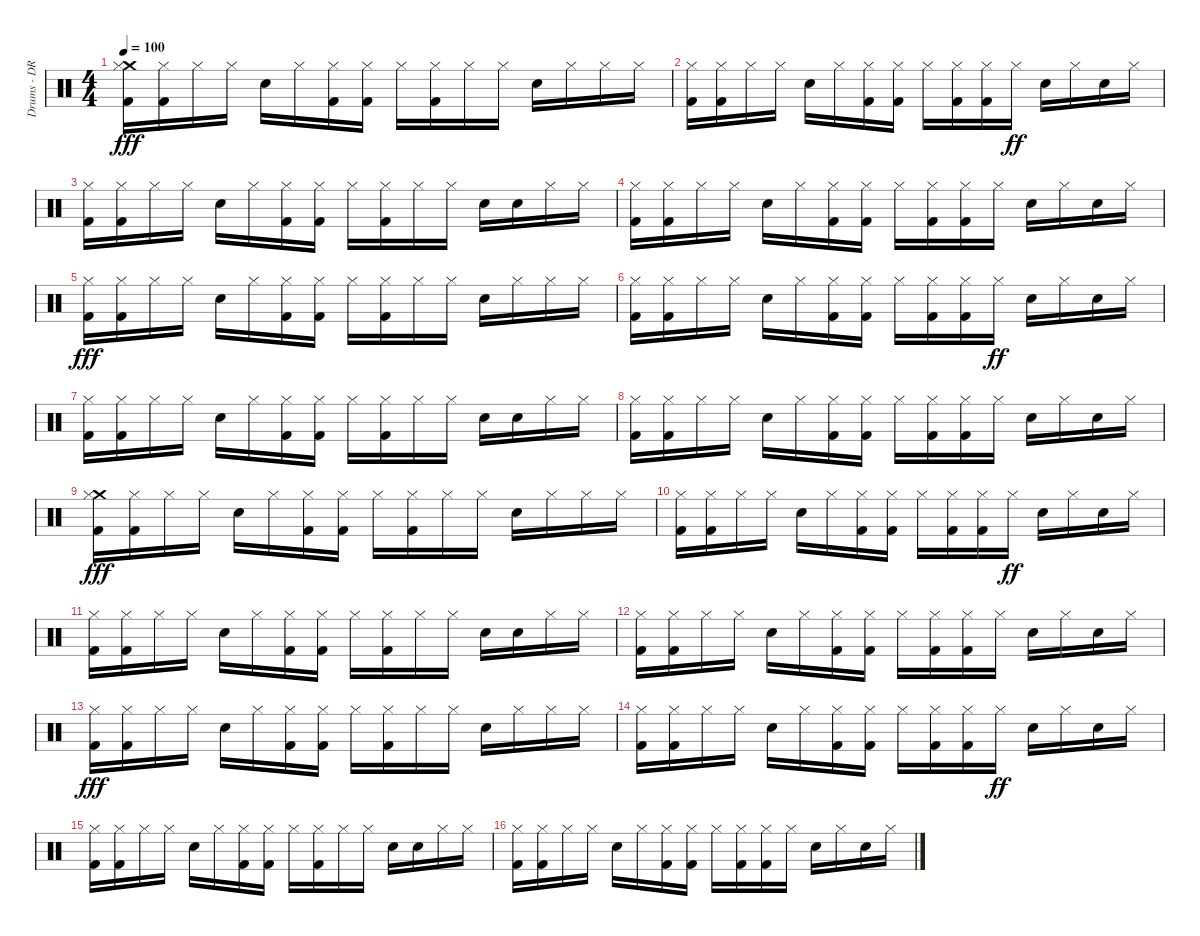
\track ("Drums - DR-660 Standard" "Drums - DR") {instrument percussion}
\staff {score}
\articulation defaults
\ts (4 4)
\tempo 100
\clef neutral
\ks c
("Crash medium (hit)" "Kick (hit) 2" "Hi-Hat (closed)").16{dy fff} ("Kick (hit) 2" "Hi-Hat (closed)").16 "Hi-Hat (closed)".16 "Hi-Hat (closed)".16 "Snare (hit) 2".16 "Hi-Hat (closed)".16 ("Kick (hit) 2" "Hi-Hat (closed)").16 ("Kick (hit) 2" "Hi-Hat (closed)").16 "Hi-Hat (closed)".16 ("Kick (hit) 2" "Hi-Hat (closed)").16 "Hi-Hat (closed)".16 "Hi-Hat (closed)".16 "Snare (hit) 2".16 "Hi-Hat (closed)".16 "Hi-Hat (closed)".16 "Hi-Hat (closed)".16 |
("Kick (hit) 2" "Hi-Hat (closed)").16 ("Kick (hit) 2" "Hi-Hat (closed)").16 "Hi-Hat (closed)".16 "Hi-Hat (closed)".16 "Snare (hit) 2".16 "Hi-Hat (closed)".16 ("Kick (hit) 2" "Hi-Hat (closed)").16 ("Kick (hit) 2" "Hi-Hat (closed)").16 "Hi-Hat (closed)".16 ("Kick (hit) 2" "Hi-Hat (closed)").16 ("Kick (hit) 2" "Hi-Hat (closed)").16 "Hi-Hat (closed)".16{dy ff} "Snare (hit) 2".16 "Hi-Hat (closed)".16 "Snare (hit) 2".16 "Hi-Hat (closed)".16 |
("Kick (hit) 2" "Hi-Hat (closed)").16 ("Kick (hit) 2" "Hi-Hat (closed)").16 "Hi-Hat (closed)".16 "Hi-Hat (closed)".16 "Snare (hit) 2".16 "Hi-Hat (closed)".16 ("Kick (hit) 2" "Hi-Hat (closed)").16 ("Kick (hit) 2" "Hi-Hat (closed)").16 "Hi-Hat (closed)".16 ("Kick (hit) 2" "Hi-Hat (closed)").16 "Hi-Hat (closed)".16 "Hi-Hat (closed)".16 "Snare (hit) 2".16 "Snare (hit) 2".16 "Hi-Hat (closed)".16 "Hi-Hat (closed)".16 |
("Kick (hit) 2" "Hi-Hat (closed)").16 ("Kick (hit) 2" "Hi-Hat (closed)").16 "Hi-Hat (closed)".16 "Hi-Hat (closed)".16 "Snare (hit) 2".16 "Hi-Hat (closed)".16 ("Kick (hit) 2" "Hi-Hat (closed)").16 ("Kick (hit) 2" "Hi-Hat (closed)").16 "Hi-Hat (closed)".16 ("Kick (hit) 2" "Hi-Hat (closed)").16 ("Kick (hit) 2" "Hi-Hat (closed)").16 "Hi-Hat (closed)".16 "Snare (hit) 2".16 "Hi-Hat (closed)".16 "Snare (hit) 2".16 "Hi-Hat (closed)".16 |
("Kick (hit) 2" "Hi-Hat (closed)").16{dy fff} ("Kick (hit) 2" "Hi-Hat (closed)").16 "Hi-Hat (closed)".16 "Hi-Hat (closed)".16 "Snare (hit) 2".16 "Hi-Hat (closed)".16 ("Kick (hit) 2" "Hi-Hat (closed)").16 ("Kick (hit) 2" "Hi-Hat (closed)").16 "Hi-Hat (closed)".16 ("Kick (hit) 2" "Hi-Hat (closed)").16 "Hi-Hat (closed)".16 "Hi-Hat (closed)".16 "Snare (hit) 2".16 "Hi-Hat (closed)".16 "Hi-Hat (closed)".16 "Hi-Hat (closed)".16 |
("Kick (hit) 2" "Hi-Hat (closed)").16 ("Kick (hit) 2" "Hi-Hat (closed)").16 "Hi-Hat (closed)".16 "Hi-Hat (closed)".16 "Snare (hit) 2".16 "Hi-Hat (closed)".16 ("Kick (hit) 2" "Hi-Hat (closed)").16 ("Kick (hit) 2" "Hi-Hat (closed)").16 "Hi-Hat (closed)".16 ("Kick (hit) 2" "Hi-Hat (closed)").16 ("Kick (hit) 2" "Hi-Hat (closed)").16 "Hi-Hat (closed)".16{dy ff} "Snare (hit) 2".16 "Hi-Hat (closed)".16 "Snare (hit) 2".16 "Hi-Hat (closed)".16 |
("Kick (hit) 2" "Hi-Hat (closed)").16 ("Kick (hit) 2" "Hi-Hat (closed)").16 "Hi-Hat (closed)".16 "Hi-Hat (closed)".16 "Snare (hit) 2".16 "Hi-Hat (closed)".16 ("Kick (hit) 2" "Hi-Hat (closed)").16 ("Kick (hit) 2" "Hi-Hat (closed)").16 "Hi-Hat (closed)".16 ("Kick (hit) 2" "Hi-Hat (closed)").16 "Hi-Hat (closed)".16 "Hi-Hat (closed)".16 "Snare (hit) 2".16 "Snare (hit) 2".16 "Hi-Hat (closed)".16 "Hi-Hat (closed)".16 |
("Kick (hit) 2" "Hi-Hat (closed)").16 ("Kick (hit) 2" "Hi-Hat (closed)").16 "Hi-Hat (closed)".16 "Hi-Hat (closed)".16 "Snare (hit) 2".16 "Hi-Hat (closed)".16 ("Kick (hit) 2" "Hi-Hat (closed)").16 ("Kick (hit) 2" "Hi-Hat (closed)").16 "Hi-Hat (closed)".16 ("Kick (hit) 2" "Hi-Hat (closed)").16 ("Kick (hit) 2" "Hi-Hat (closed)").16 "Hi-Hat (closed)".16 "Snare (hit) 2".16 "Hi-Hat (closed)".16 "Snare (hit) 2".16 "Hi-Hat (closed)".16 |
("Crash medium (hit)" "Kick (hit) 2" "Hi-Hat (closed)").16{dy fff} ("Kick (hit) 2" "Hi-Hat (closed)").16 "Hi-Hat (closed)".16 "Hi-Hat (closed)".16 "Snare (hit) 2".16 "Hi-Hat (closed)".16 ("Kick (hit) 2" "Hi-Hat (closed)").16 ("Kick (hit) 2" "Hi-Hat (closed)").16 "Hi-Hat (closed)".16 ("Kick (hit) 2" "Hi-Hat (closed)").16 "Hi-Hat (closed)".16 "Hi-Hat (closed)".16 "Snare (hit) 2".16 "Hi-Hat (closed)".16 "Hi-Hat (closed)".16 "Hi-Hat (closed)".16 |
("Kick (hit) 2" "Hi-Hat (closed)").16 ("Kick (hit) 2" "Hi-Hat (closed)").16 "Hi-Hat (closed)".16 "Hi-Hat (closed)".16 "Snare (hit) 2".16 "Hi-Hat (closed)".16 ("Kick (hit) 2" "Hi-Hat (closed)").16 ("Kick (hit) 2" "Hi-Hat (closed)").16 "Hi-Hat (closed)".16 ("Kick (hit) 2" "Hi-Hat (closed)").16 ("Kick (hit) 2" "Hi-Hat (closed)").16 "Hi-Hat (closed)".16{dy ff} "Snare (hit) 2".16 "Hi-Hat (closed)".16 "Snare (hit) 2".16 "Hi-Hat (closed)".16 |
("Kick (hit) 2" "Hi-Hat (closed)").16 ("Kick (hit) 2" "Hi-Hat (closed)").16 "Hi-Hat (closed)".16 "Hi-Hat (closed)".16 "Snare (hit) 2".16 "Hi-Hat (closed)".16 ("Kick (hit) 2" "Hi-Hat (closed)").16 ("Kick (hit) 2" "Hi-Hat (closed)").16 "Hi-Hat (closed)".16 ("Kick (hit) 2" "Hi-Hat (closed)").16 "Hi-Hat (closed)".16 "Hi-Hat (closed)".16 "Snare (hit) 2".16 "Snare (hit) 2".16 "Hi-Hat (closed)".16 "Hi-Hat (closed)".16 |
("Kick (hit) 2" "Hi-Hat (closed)").16 ("Kick (hit) 2" "Hi-Hat (closed)").16 "Hi-Hat (closed)".16 "Hi-Hat (closed)".16 "Snare (hit) 2".16 "Hi-Hat (closed)".16 ("Kick (hit) 2" "Hi-Hat (closed)").16 ("Kick (hit) 2" "Hi-Hat (closed)").16 "Hi-Hat (closed)".16 ("Kick (hit) 2" "Hi-Hat (closed)").16 ("Kick (hit) 2" "Hi-Hat (closed)").16 "Hi-Hat (closed)".16 "Snare (hit) 2".16 "Hi-Hat (closed)".16 "Snare (hit) 2".16 "Hi-Hat (closed)".16 |
("Kick (hit) 2" "Hi-Hat (closed)").16{dy fff} ("Kick (hit) 2" "Hi-Hat (closed)").16 "Hi-Hat (closed)".16 "Hi-Hat (closed)".16 "Snare (hit) 2".16 "Hi-Hat (closed)".16 ("Kick (hit) 2" "Hi-Hat (closed)").16 ("Kick (hit) 2" "Hi-Hat (closed)").16 "Hi-Hat (closed)".16 ("Kick (hit) 2" "Hi-Hat (closed)").16 "Hi-Hat (closed)".16 "Hi-Hat (closed)".16 "Snare (hit) 2".16 "Hi-Hat (closed)".16 "Hi-Hat (closed)".16 "Hi-Hat (closed)".16 |
("Kick (hit) 2" "Hi-Hat (closed)").16 ("Kick (hit) 2" "Hi-Hat (closed)").16 "Hi-Hat (closed)".16 "Hi-Hat (closed)".16 "Snare (hit) 2".16 "Hi-Hat (closed)".16 ("Kick (hit) 2" "Hi-Hat (closed)").16 ("Kick (hit) 2" "Hi-Hat (closed)").16 "Hi-Hat (closed)".16 ("Kick (hit) 2" "Hi-Hat (closed)").16 ("Kick (hit) 2" "Hi-Hat (closed)").16 "Hi-Hat (closed)".16{dy ff} "Snare (hit) 2".16 "Hi-Hat (closed)".16 "Snare (hit) 2".16 "Hi-Hat (closed)".16 |
("Kick (hit) 2" "Hi-Hat (closed)").16 ("Kick (hit) 2" "Hi-Hat (closed)").16 "Hi-Hat (closed)".16 "Hi-Hat (closed)".16 "Snare (hit) 2".16 "Hi-Hat (closed)".16 ("Kick (hit) 2" "Hi-Hat (closed)").16 ("Kick (hit) 2" "Hi-Hat (closed)").16 "Hi-Hat (closed)".16 ("Kick (hit) 2" "Hi-Hat (closed)").16 "Hi-Hat (closed)".16 "Hi-Hat (closed)".16 "Snare (hit) 2".16 "Snare (hit) 2".16 "Hi-Hat (closed)".16 "Hi-Hat (closed)".16 |
("Kick (hit) 2" "Hi-Hat (closed)").16 ("Kick (hit) 2" "Hi-Hat (closed)").16 "Hi-Hat (closed)".16 "Hi-Hat (closed)".16 "Snare (hit) 2".16 "Hi-Hat (closed)".16 ("Kick (hit) 2" "Hi-Hat (closed)").16 ("Kick (hit) 2" "Hi-Hat (closed)").16 "Hi-Hat (closed)".16 ("Kick (hit) 2" "Hi-Hat (closed)").16 ("Kick (hit) 2" "Hi-Hat (closed)").16 "Hi-Hat (closed)".16 "Snare (hit) 2".16 "Hi-Hat (closed)".16 "Snare (hit) 2".16 "Hi-Hat (closed)".16
